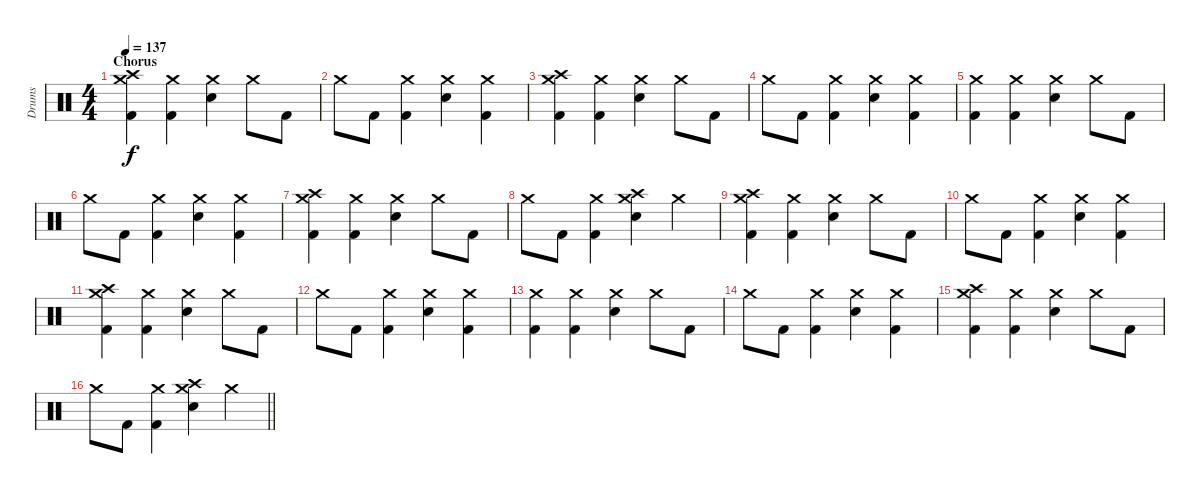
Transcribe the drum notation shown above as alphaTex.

\track ("Drums" "Drums") {instrument percussion}
\staff {score}
\articulation defaults
\ts (4 4)
\section ("" "Chorus")
\tempo 137
\clef neutral
\ks c
("Crash high (hit)" "Crash medium (hit)" "Kick (hit) 2").4{dy f} ("Crash medium (hit)" "Kick (hit) 2").4 ("Crash medium (hit)" "Electric Snare (hit)").4 "Crash medium (hit)".8 "Kick (hit) 2".8 |
"Crash medium (hit)".8 "Kick (hit) 2".8 ("Crash medium (hit)" "Kick (hit) 2").4 ("Crash medium (hit)" "Electric Snare (hit)").4 ("Crash medium (hit)" "Kick (hit) 2").4 |
("Crash high (hit)" "Crash medium (hit)" "Kick (hit) 2").4 ("Crash medium (hit)" "Kick (hit) 2").4 ("Crash medium (hit)" "Electric Snare (hit)").4 "Crash medium (hit)".8 "Kick (hit) 2".8 |
"Crash medium (hit)".8 "Kick (hit) 2".8 ("Crash medium (hit)" "Kick (hit) 2").4 ("Crash medium (hit)" "Electric Snare (hit)").4 ("Crash medium (hit)" "Kick (hit) 2").4 |
("Crash medium (hit)" "Kick (hit) 2").4 ("Crash medium (hit)" "Kick (hit) 2").4 ("Crash medium (hit)" "Electric Snare (hit)").4 "Crash medium (hit)".8 "Kick (hit) 2".8 |
"Crash medium (hit)".8 "Kick (hit) 2".8 ("Crash medium (hit)" "Kick (hit) 2").4 ("Crash medium (hit)" "Electric Snare (hit)").4 ("Crash medium (hit)" "Kick (hit) 2").4 |
("Crash high (hit)" "Crash medium (hit)" "Kick (hit) 2").4 ("Crash medium (hit)" "Kick (hit) 2").4 ("Crash medium (hit)" "Electric Snare (hit)").4 "Crash medium (hit)".8 "Kick (hit) 2".8 |
"Crash medium (hit)".8 "Kick (hit) 2".8 ("Crash medium (hit)" "Kick (hit) 2").4 ("Crash high (hit)" "Crash medium (hit)" "Electric Snare (hit)").4 "Crash medium (hit)".4 |
("Crash high (hit)" "Crash medium (hit)" "Kick (hit) 2").4 ("Crash medium (hit)" "Kick (hit) 2").4 ("Crash medium (hit)" "Electric Snare (hit)").4 "Crash medium (hit)".8 "Kick (hit) 2".8 |
"Crash medium (hit)".8 "Kick (hit) 2".8 ("Crash medium (hit)" "Kick (hit) 2").4 ("Crash medium (hit)" "Electric Snare (hit)").4 ("Crash medium (hit)" "Kick (hit) 2").4 |
("Crash high (hit)" "Crash medium (hit)" "Kick (hit) 2").4 ("Crash medium (hit)" "Kick (hit) 2").4 ("Crash medium (hit)" "Electric Snare (hit)").4 "Crash medium (hit)".8 "Kick (hit) 2".8 |
"Crash medium (hit)".8 "Kick (hit) 2".8 ("Crash medium (hit)" "Kick (hit) 2").4 ("Crash medium (hit)" "Electric Snare (hit)").4 ("Crash medium (hit)" "Kick (hit) 2").4 |
("Crash medium (hit)" "Kick (hit) 2").4 ("Crash medium (hit)" "Kick (hit) 2").4 ("Crash medium (hit)" "Electric Snare (hit)").4 "Crash medium (hit)".8 "Kick (hit) 2".8 |
"Crash medium (hit)".8 "Kick (hit) 2".8 ("Crash medium (hit)" "Kick (hit) 2").4 ("Crash medium (hit)" "Electric Snare (hit)").4 ("Crash medium (hit)" "Kick (hit) 2").4 |
("Crash high (hit)" "Crash medium (hit)" "Kick (hit) 2").4 ("Crash medium (hit)" "Kick (hit) 2").4 ("Crash medium (hit)" "Electric Snare (hit)").4 "Crash medium (hit)".8 "Kick (hit) 2".8 |
\barLineRight lightlight "Crash medium (hit)".8 "Kick (hit) 2".8
("Crash medium (hit)" "Kick (hit) 2").4 ("Crash high (hit)" "Crash medium (hit)" "Electric Snare (hit)").4 "Crash medium (hit)".4
